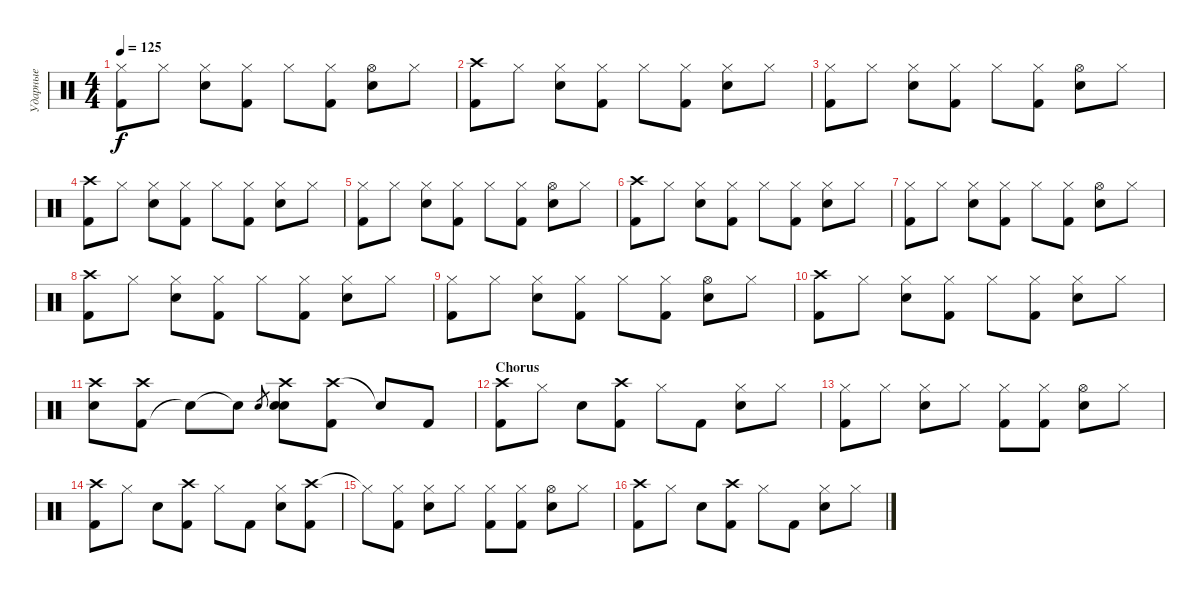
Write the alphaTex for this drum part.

\track ("Ударные" "Ударные") {instrument percussion}
\staff {score}
\articulation defaults
\ts (4 4)
\tempo 125
\clef neutral
\ks c
("Hi-Hat (closed)" "Kick (hit) 2").8{dy f} "Hi-Hat (closed)".8 ("Hi-Hat (closed)" "Snare (hit) 2").8 ("Hi-Hat (closed)" "Kick (hit) 2").8 "Hi-Hat (closed)".8 ("Hi-Hat (closed)" "Kick (hit) 2").8 ("Hi-Hat (open)" "Snare (hit) 2").8 "Hi-Hat (closed)".8 |
("Kick (hit) 2" "Crash high (hit)").8 "Hi-Hat (closed)".8 ("Snare (hit) 2" "Hi-Hat (closed)").8 ("Kick (hit) 2" "Hi-Hat (closed)").8 "Hi-Hat (closed)".8 ("Kick (hit) 2" "Hi-Hat (closed)").8 ("Snare (hit) 2" "Hi-Hat (closed)").8 "Hi-Hat (closed)".8 |
("Hi-Hat (closed)" "Kick (hit) 2").8 "Hi-Hat (closed)".8 ("Hi-Hat (closed)" "Snare (hit) 2").8 ("Hi-Hat (closed)" "Kick (hit) 2").8 "Hi-Hat (closed)".8 ("Hi-Hat (closed)" "Kick (hit) 2").8 ("Hi-Hat (open)" "Snare (hit) 2").8 "Hi-Hat (closed)".8 |
("Kick (hit) 2" "Crash high (hit)").8 "Hi-Hat (closed)".8 ("Snare (hit) 2" "Hi-Hat (closed)").8 ("Kick (hit) 2" "Hi-Hat (closed)").8 "Hi-Hat (closed)".8 ("Kick (hit) 2" "Hi-Hat (closed)").8 ("Snare (hit) 2" "Hi-Hat (closed)").8 "Hi-Hat (closed)".8 |
("Hi-Hat (closed)" "Kick (hit) 2").8 "Hi-Hat (closed)".8 ("Hi-Hat (closed)" "Snare (hit) 2").8 ("Hi-Hat (closed)" "Kick (hit) 2").8 "Hi-Hat (closed)".8 ("Hi-Hat (closed)" "Kick (hit) 2").8 ("Hi-Hat (open)" "Snare (hit) 2").8 "Hi-Hat (closed)".8 |
("Kick (hit) 2" "Crash high (hit)").8 "Hi-Hat (closed)".8 ("Snare (hit) 2" "Hi-Hat (closed)").8 ("Kick (hit) 2" "Hi-Hat (closed)").8 "Hi-Hat (closed)".8 ("Kick (hit) 2" "Hi-Hat (closed)").8 ("Snare (hit) 2" "Hi-Hat (closed)").8 "Hi-Hat (closed)".8 |
("Hi-Hat (closed)" "Kick (hit) 2").8 "Hi-Hat (closed)".8 ("Hi-Hat (closed)" "Snare (hit) 2").8 ("Hi-Hat (closed)" "Kick (hit) 2").8 "Hi-Hat (closed)".8 ("Hi-Hat (closed)" "Kick (hit) 2").8 ("Hi-Hat (open)" "Snare (hit) 2").8 "Hi-Hat (closed)".8 |
("Kick (hit) 2" "Crash high (hit)").8 "Hi-Hat (closed)".8 ("Snare (hit) 2" "Hi-Hat (closed)").8 ("Kick (hit) 2" "Hi-Hat (closed)").8 "Hi-Hat (closed)".8 ("Kick (hit) 2" "Hi-Hat (closed)").8 ("Snare (hit) 2" "Hi-Hat (closed)").8 "Hi-Hat (closed)".8 |
("Hi-Hat (closed)" "Kick (hit) 2").8 "Hi-Hat (closed)".8 ("Hi-Hat (closed)" "Snare (hit) 2").8 ("Hi-Hat (closed)" "Kick (hit) 2").8 "Hi-Hat (closed)".8 ("Hi-Hat (closed)" "Kick (hit) 2").8 ("Hi-Hat (open)" "Snare (hit) 2").8 "Hi-Hat (closed)".8 |
("Kick (hit) 2" "Crash high (hit)").8 "Hi-Hat (closed)".8 ("Snare (hit) 2" "Hi-Hat (closed)").8 ("Kick (hit) 2" "Hi-Hat (closed)").8 "Hi-Hat (closed)".8 ("Kick (hit) 2" "Hi-Hat (closed)").8 ("Snare (hit) 2" "Hi-Hat (closed)").8 "Hi-Hat (closed)".8 |
("Snare (hit) 2" "Crash high (hit)").8 ("Kick (hit) 2" "Crash high (hit)").8 "Snare (hit)"{t}.8 "Snare (hit) 2"{t}.8 "Snare (hit) 2".8{gr} ("Snare (hit) 2" "Crash high (hit)" "Snare (hit) 2").8 ("Crash high (hit)" "Kick (hit) 2").8 "Snare (hit)"{t}.8 "Kick (hit) 2".8 |
\section ("" "Chorus")
("Crash high (hit)" "Kick (hit) 2").8 "Hi-Hat (closed)".8 "Snare (hit) 2".8 ("Crash high (hit)" "Kick (hit) 2").8 "Hi-Hat (closed)".8 "Kick (hit) 2".8 ("Hi-Hat (closed)" "Snare (hit) 2").8 "Hi-Hat (closed)".8 |
("Hi-Hat (closed)" "Kick (hit) 2").8 "Hi-Hat (closed)".8 ("Hi-Hat (closed)" "Snare (hit) 2").8 "Hi-Hat (closed)".8 ("Hi-Hat (closed)" "Kick (hit) 2").8 ("Hi-Hat (closed)" "Kick (hit) 2").8 ("Hi-Hat (open)" "Snare (hit) 2").8 "Hi-Hat (closed)".8 |
("Crash high (hit)" "Kick (hit) 2").8 "Hi-Hat (closed)".8 "Snare (hit) 2".8 ("Crash high (hit)" "Kick (hit) 2").8 "Hi-Hat (closed)".8 "Kick (hit) 2".8 ("Hi-Hat (closed)" "Snare (hit) 2").8 ("Crash high (hit)" "Kick (hit) 2").8 |
"Hi-Hat (closed)"{t}.8 ("Hi-Hat (closed)" "Kick (hit) 2").8 ("Hi-Hat (closed)" "Snare (hit) 2").8 "Hi-Hat (closed)".8 ("Hi-Hat (closed)" "Kick (hit) 2").8 ("Hi-Hat (closed)" "Kick (hit) 2").8 ("Hi-Hat (open)" "Snare (hit) 2").8 "Hi-Hat (closed)".8 |
("Crash high (hit)" "Kick (hit) 2").8 "Hi-Hat (closed)".8 "Snare (hit) 2".8 ("Crash high (hit)" "Kick (hit) 2").8 "Hi-Hat (closed)".8 "Kick (hit) 2".8 ("Hi-Hat (closed)" "Snare (hit) 2").8 "Hi-Hat (closed)".8
